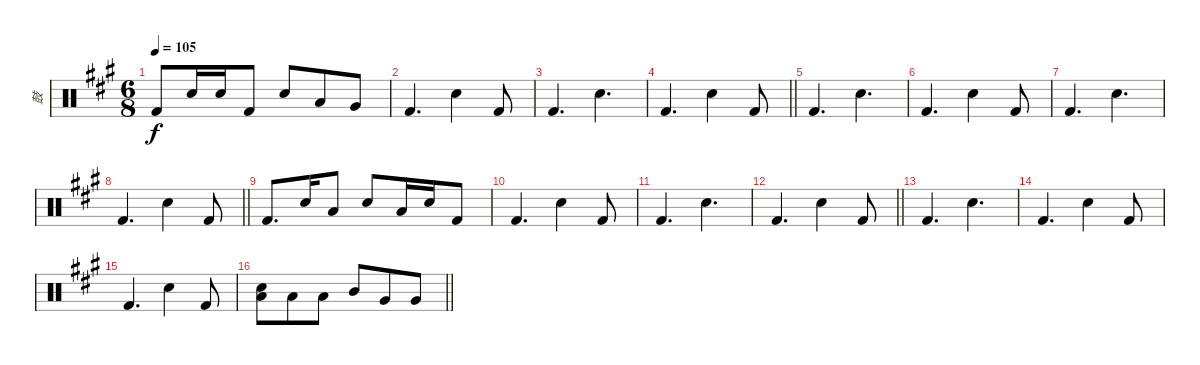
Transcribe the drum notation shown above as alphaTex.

\track ("鼓" "鼓") {instrument percussion}
\staff {score}
\articulation defaults
\ts (6 8)
\tempo 105
\clef neutral
\ks a "Kick (hit) 2".8{dy f} "Hand Clap (hit)".16 "Hand Clap (hit)".16 "Kick (hit) 2".8 "Hand Clap (hit)".8 "Low Tom (hit)".8 "Very Low Tom (hit)".8
|
"Kick (hit) 2".4{d} "Electric Snare (hit)".4 "Kick (hit) 2".8 |
"Kick (hit) 2".4{d} "Electric Snare (hit)".4{d} |
\barLineRight lightlight "Kick (hit) 2".4{d} "Electric Snare (hit)".4 "Kick (hit) 2".8
|
"Kick (hit) 2".4{d} "Electric Snare (hit)".4{d} |
"Kick (hit) 2".4{d} "Electric Snare (hit)".4 "Kick (hit) 2".8 |
"Kick (hit) 2".4{d} "Electric Snare (hit)".4{d} |
\barLineRight lightlight "Kick (hit) 2".4{d} "Electric Snare (hit)".4 "Kick (hit) 2".8
|
"Kick (hit) 2".8{d} "Electric Snare (hit)".16 "Low Tom (hit)".8 "Electric Snare (hit)".8 "Low Tom (hit)".16 "Electric Snare (hit)".16 "Kick (hit) 2".8 |
"Kick (hit) 2".4{d} "Electric Snare (hit)".4 "Kick (hit) 2".8 |
"Kick (hit) 2".4{d} "Electric Snare (hit)".4{d} |
\barLineRight lightlight "Kick (hit) 2".4{d} "Electric Snare (hit)".4 "Kick (hit) 2".8
|
"Kick (hit) 2".4{d} "Electric Snare (hit)".4{d} |
"Kick (hit) 2".4{d} "Electric Snare (hit)".4 "Kick (hit) 2".8 |
"Kick (hit) 2".4{d} "Electric Snare (hit)".4 "Kick (hit) 2".8 |
\barLineRight lightlight
("Electric Snare (hit)" "Low Tom (hit)").8 "Low Tom (hit)".8 "Low Tom (hit)".8 "Mid Tom (hit)".8 "Very Low Tom (hit)".8 "Very Low Tom (hit)".8
